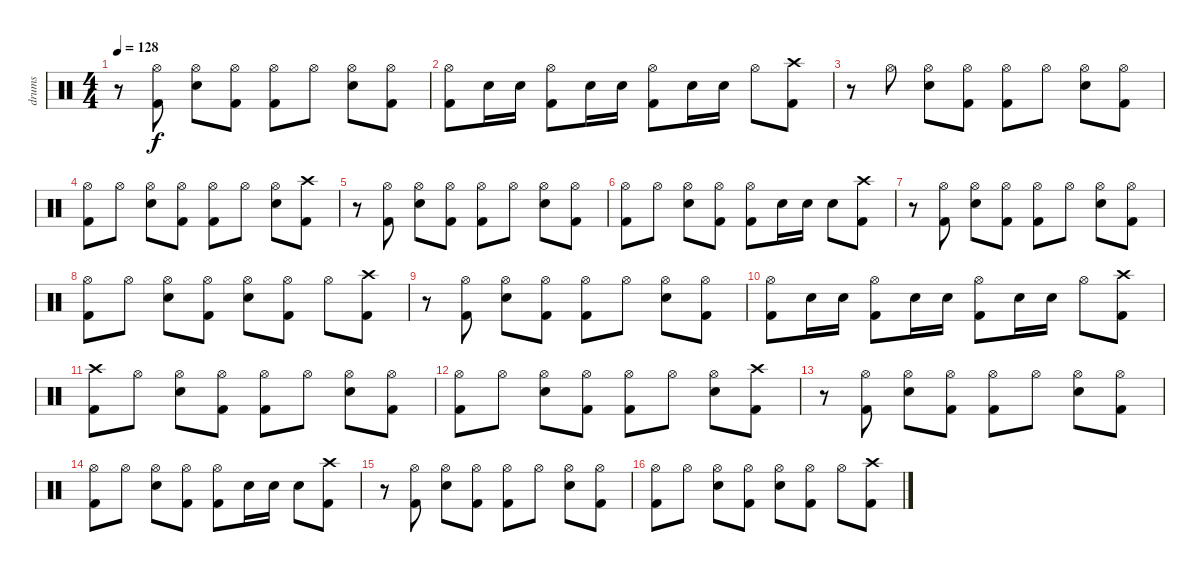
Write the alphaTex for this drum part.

\track ("drums" "drums") {instrument percussion}
\staff {score}
\articulation defaults
\ts (4 4)
\tempo 128
\clef neutral
\ks c
r.8{dy f} ("Kick (hit) 2" "Hi-Hat (open)").8 ("Snare (hit) 2" "Hi-Hat (open)").8 ("Kick (hit) 2" "Hi-Hat (open)").8 ("Kick (hit) 2" "Hi-Hat (open)").8 "Hi-Hat (open)".8 ("Snare (hit) 2" "Hi-Hat (open)").8 ("Kick (hit) 2" "Hi-Hat (open)").8 |
("Kick (hit) 2" "Hi-Hat (open)").8 "Snare (hit) 2".16 "Snare (hit) 2".16 ("Kick (hit) 2" "Hi-Hat (open)").8 "Snare (hit) 2".16 "Snare (hit) 2".16 ("Kick (hit) 2" "Hi-Hat (open)").8 "Snare (hit) 2".16 "Snare (hit) 2".16 "Hi-Hat (open)".8 ("Crash high (hit)" "Kick (hit) 2").8 |
r.8 "Hi-Hat (open)".8 ("Snare (hit) 2" "Hi-Hat (open)").8 ("Kick (hit) 2" "Hi-Hat (open)").8 ("Kick (hit) 2" "Hi-Hat (open)").8 "Hi-Hat (open)".8 ("Snare (hit) 2" "Hi-Hat (open)").8 ("Kick (hit) 2" "Hi-Hat (open)").8 |
("Kick (hit) 2" "Hi-Hat (open)").8 "Hi-Hat (open)".8 ("Snare (hit) 2" "Hi-Hat (open)").8 ("Kick (hit) 2" "Hi-Hat (open)").8 ("Kick (hit) 2" "Hi-Hat (open)").8 "Hi-Hat (open)".8 ("Snare (hit) 2" "Hi-Hat (open)").8 ("Kick (hit) 2" "Crash high (hit)").8 |
r.8 ("Kick (hit) 2" "Hi-Hat (open)").8 ("Snare (hit) 2" "Hi-Hat (open)").8 ("Kick (hit) 2" "Hi-Hat (open)").8 ("Kick (hit) 2" "Hi-Hat (open)").8 "Hi-Hat (open)".8 ("Snare (hit) 2" "Hi-Hat (open)").8 ("Kick (hit) 2" "Hi-Hat (open)").8 |
("Kick (hit) 2" "Hi-Hat (open)").8 "Hi-Hat (open)".8 ("Snare (hit) 2" "Hi-Hat (open)").8 ("Kick (hit) 2" "Hi-Hat (open)").8 ("Kick (hit) 2" "Hi-Hat (open)").8 "Snare (hit) 2".16 "Snare (hit) 2".16 "Snare (hit) 2".8 ("Kick (hit) 2" "Crash high (hit)").8 |
r.8 ("Kick (hit) 2" "Hi-Hat (open)").8 ("Snare (hit) 2" "Hi-Hat (open)").8 ("Kick (hit) 2" "Hi-Hat (open)").8 ("Kick (hit) 2" "Hi-Hat (open)").8 "Hi-Hat (open)".8 ("Snare (hit) 2" "Hi-Hat (open)").8 ("Kick (hit) 2" "Hi-Hat (open)").8 |
("Kick (hit) 2" "Hi-Hat (open)").8 "Hi-Hat (open)".8 ("Snare (hit) 2" "Hi-Hat (open)").8 ("Kick (hit) 2" "Hi-Hat (open)").8 ("Snare (hit) 2" "Hi-Hat (open)").8 ("Kick (hit) 2" "Hi-Hat (open)").8 "Hi-Hat (open)".8 ("Crash high (hit)" "Kick (hit) 2").8 |
r.8 ("Kick (hit) 2" "Hi-Hat (open)").8 ("Snare (hit) 2" "Hi-Hat (open)").8 ("Kick (hit) 2" "Hi-Hat (open)").8 ("Kick (hit) 2" "Hi-Hat (open)").8 "Hi-Hat (open)".8 ("Snare (hit) 2" "Hi-Hat (open)").8 ("Kick (hit) 2" "Hi-Hat (open)").8 |
("Kick (hit) 2" "Hi-Hat (open)").8 "Snare (hit) 2".16 "Snare (hit) 2".16 ("Kick (hit) 2" "Hi-Hat (open)").8 "Snare (hit) 2".16 "Snare (hit) 2".16 ("Kick (hit) 2" "Hi-Hat (open)").8 "Snare (hit) 2".16 "Snare (hit) 2".16 "Hi-Hat (open)".8 ("Crash high (hit)" "Kick (hit) 2").8 |
("Kick (hit) 2" "Crash high (hit)").8 "Hi-Hat (open)".8 ("Snare (hit) 2" "Hi-Hat (open)").8 ("Kick (hit) 2" "Hi-Hat (open)").8 ("Kick (hit) 2" "Hi-Hat (open)").8 "Hi-Hat (open)".8 ("Snare (hit) 2" "Hi-Hat (open)").8 ("Kick (hit) 2" "Hi-Hat (open)").8 |
("Kick (hit) 2" "Hi-Hat (open)").8 "Hi-Hat (open)".8 ("Snare (hit) 2" "Hi-Hat (open)").8 ("Kick (hit) 2" "Hi-Hat (open)").8 ("Kick (hit) 2" "Hi-Hat (open)").8 "Hi-Hat (open)".8 ("Snare (hit) 2" "Hi-Hat (open)").8 ("Kick (hit) 2" "Crash high (hit)").8 |
r.8 ("Kick (hit) 2" "Hi-Hat (open)").8 ("Snare (hit) 2" "Hi-Hat (open)").8 ("Kick (hit) 2" "Hi-Hat (open)").8 ("Kick (hit) 2" "Hi-Hat (open)").8 "Hi-Hat (open)".8 ("Snare (hit) 2" "Hi-Hat (open)").8 ("Kick (hit) 2" "Hi-Hat (open)").8 |
("Kick (hit) 2" "Hi-Hat (open)").8 "Hi-Hat (open)".8 ("Snare (hit) 2" "Hi-Hat (open)").8 ("Kick (hit) 2" "Hi-Hat (open)").8 ("Kick (hit) 2" "Hi-Hat (open)").8 "Snare (hit) 2".16 "Snare (hit) 2".16 "Snare (hit) 2".8 ("Kick (hit) 2" "Crash high (hit)").8 |
r.8 ("Kick (hit) 2" "Hi-Hat (open)").8 ("Snare (hit) 2" "Hi-Hat (open)").8 ("Kick (hit) 2" "Hi-Hat (open)").8 ("Kick (hit) 2" "Hi-Hat (open)").8 "Hi-Hat (open)".8 ("Snare (hit) 2" "Hi-Hat (open)").8 ("Kick (hit) 2" "Hi-Hat (open)").8 |
("Kick (hit) 2" "Hi-Hat (open)").8 "Hi-Hat (open)".8 ("Snare (hit) 2" "Hi-Hat (open)").8 ("Kick (hit) 2" "Hi-Hat (open)").8 ("Snare (hit) 2" "Hi-Hat (open)").8 ("Kick (hit) 2" "Hi-Hat (open)").8 "Hi-Hat (open)".8 ("Crash high (hit)" "Kick (hit) 2").8
